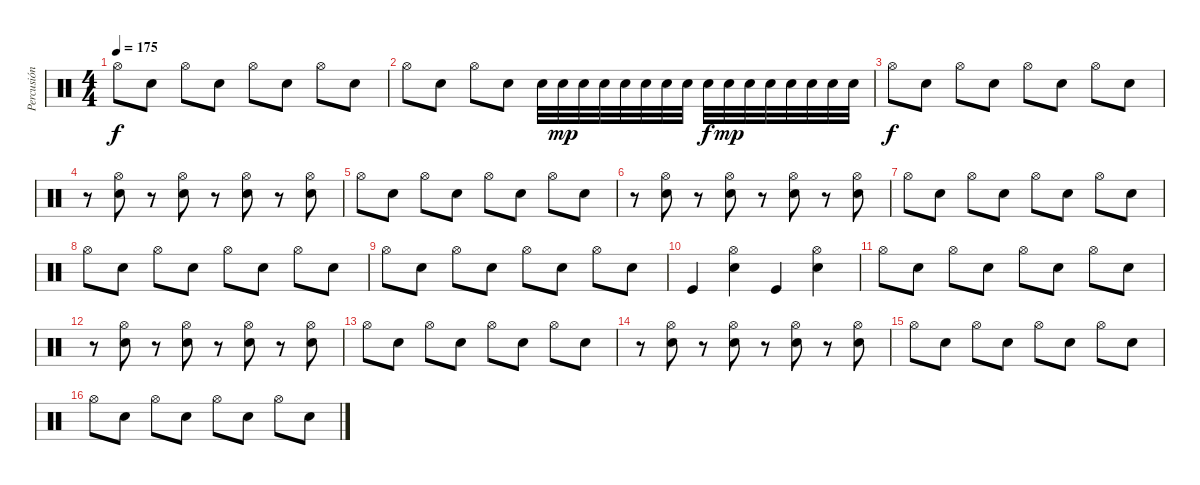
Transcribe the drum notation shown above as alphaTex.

\track ("Percusión" "Percusión") {instrument percussion}
\staff {score}
\articulation defaults
\ts (4 4)
\tempo 175
\clef neutral
\ks c "Hi-Hat (open)".8{dy f} "Snare (hit) 2".8 "Hi-Hat (open)".8 "Snare (hit) 2".8 "Hi-Hat (open)".8 "Snare (hit) 2".8 "Hi-Hat (open)".8 "Snare (hit) 2".8
|
"Hi-Hat (open)".8 "Snare (hit) 2".8 "Hi-Hat (open)".8 "Snare (hit) 2".8 "Snare (hit) 2".32 "Snare (hit) 2".32{dy mp} "Snare (hit) 2".32 "Snare (hit) 2".32 "Snare (hit) 2".32 "Snare (hit) 2".32 "Snare (hit) 2".32 "Snare (hit) 2".32 "Snare (hit) 2".32{dy f} "Snare (hit) 2".32{dy mp} "Snare (hit) 2".32 "Snare (hit) 2".32 "Snare (hit) 2".32 "Snare (hit) 2".32 "Snare (hit) 2".32 "Snare (hit) 2".32 |
"Hi-Hat (open)".8{dy f} "Snare (hit) 2".8 "Hi-Hat (open)".8 "Snare (hit) 2".8 "Hi-Hat (open)".8 "Snare (hit) 2".8 "Hi-Hat (open)".8 "Snare (hit) 2".8 |
r.8 ("Hi-Hat (open)" "Snare (hit) 2").8 r.8 ("Hi-Hat (open)" "Snare (hit) 2").8 r.8 ("Hi-Hat (open)" "Snare (hit) 2").8 r.8 ("Hi-Hat (open)" "Snare (hit) 2").8 |
"Hi-Hat (open)".8 "Snare (hit) 2".8 "Hi-Hat (open)".8 "Snare (hit) 2".8 "Hi-Hat (open)".8 "Snare (hit) 2".8 "Hi-Hat (open)".8 "Snare (hit) 2".8 |
r.8 ("Hi-Hat (open)" "Snare (hit) 2").8 r.8 ("Hi-Hat (open)" "Snare (hit) 2").8 r.8 ("Hi-Hat (open)" "Snare (hit) 2").8 r.8 ("Hi-Hat (open)" "Snare (hit) 2").8 |
"Hi-Hat (open)".8 "Snare (hit) 2".8 "Hi-Hat (open)".8 "Snare (hit) 2".8 "Hi-Hat (open)".8 "Snare (hit) 2".8 "Hi-Hat (open)".8 "Snare (hit) 2".8 |
"Hi-Hat (open)".8 "Snare (hit) 2".8 "Hi-Hat (open)".8 "Snare (hit) 2".8 "Hi-Hat (open)".8 "Snare (hit) 2".8 "Hi-Hat (open)".8 "Snare (hit) 2".8 |
"Hi-Hat (open)".8 "Snare (hit) 2".8 "Hi-Hat (open)".8 "Snare (hit) 2".8 "Hi-Hat (open)".8 "Snare (hit) 2".8 "Hi-Hat (open)".8 "Snare (hit) 2".8 |
"Kick (hit)".4 ("Snare (hit) 2" "Hi-Hat (open)").4 "Kick (hit)".4 ("Snare (hit) 2" "Hi-Hat (open)").4 |
"Hi-Hat (open)".8 "Snare (hit) 2".8 "Hi-Hat (open)".8 "Snare (hit) 2".8 "Hi-Hat (open)".8 "Snare (hit) 2".8 "Hi-Hat (open)".8 "Snare (hit) 2".8 |
r.8 ("Hi-Hat (open)" "Snare (hit) 2").8 r.8 ("Hi-Hat (open)" "Snare (hit) 2").8 r.8 ("Hi-Hat (open)" "Snare (hit) 2").8 r.8 ("Hi-Hat (open)" "Snare (hit) 2").8 |
"Hi-Hat (open)".8 "Snare (hit) 2".8 "Hi-Hat (open)".8 "Snare (hit) 2".8 "Hi-Hat (open)".8 "Snare (hit) 2".8 "Hi-Hat (open)".8 "Snare (hit) 2".8 |
r.8 ("Hi-Hat (open)" "Snare (hit) 2").8 r.8 ("Hi-Hat (open)" "Snare (hit) 2").8 r.8 ("Hi-Hat (open)" "Snare (hit) 2").8 r.8 ("Hi-Hat (open)" "Snare (hit) 2").8 |
"Hi-Hat (open)".8 "Snare (hit) 2".8 "Hi-Hat (open)".8 "Snare (hit) 2".8 "Hi-Hat (open)".8 "Snare (hit) 2".8 "Hi-Hat (open)".8 "Snare (hit) 2".8 |
"Hi-Hat (open)".8 "Snare (hit) 2".8 "Hi-Hat (open)".8 "Snare (hit) 2".8 "Hi-Hat (open)".8 "Snare (hit) 2".8 "Hi-Hat (open)".8 "Snare (hit) 2".8
